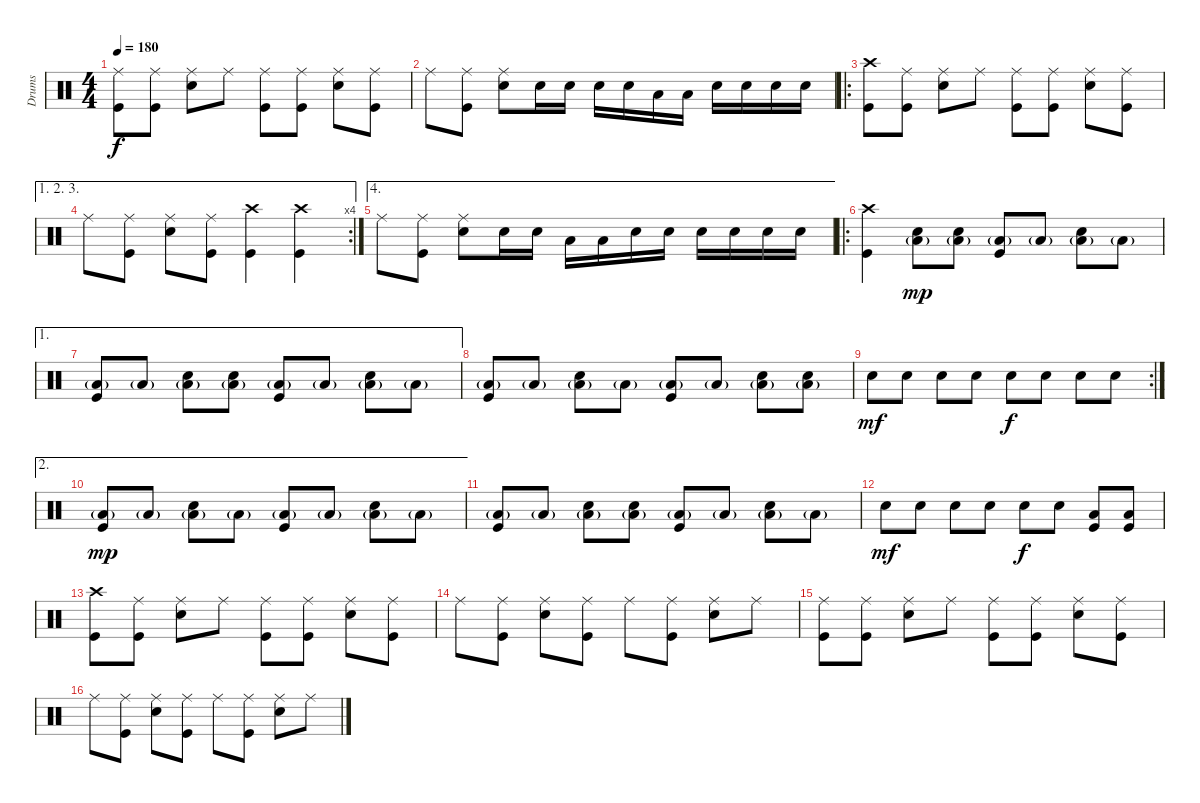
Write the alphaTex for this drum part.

\track ("Drums" "Drums") {instrument percussion}
\staff {score}
\articulation defaults
\ts (4 4)
\tempo 180
\clef neutral
\ks c
("Ride (middle)" "Kick (hit)").8{dy f} ("Ride (middle)" "Kick (hit)").8 ("Ride (middle)" "Electric Snare (hit)").8 "Ride (middle)".8 ("Ride (middle)" "Kick (hit)").8 ("Ride (middle)" "Kick (hit)").8 ("Ride (middle)" "Electric Snare (hit)").8 ("Ride (middle)" "Kick (hit)").8 |
"Ride (middle)".8 ("Ride (middle)" "Kick (hit)").8 ("Ride (middle)" "Electric Snare (hit)").8 "Electric Snare (hit)".16 "Electric Snare (hit)".16 "Electric Snare (hit)".16 "Electric Snare (hit)".16 "Low Tom (hit)".16 "Low Tom (hit)".16 "Electric Snare (hit)".16 "Electric Snare (hit)".16 "Electric Snare (hit)".16 "Electric Snare (hit)".16 |
\ro
("Crash high (hit)" "Kick (hit)").8 ("Ride (middle)" "Kick (hit)").8 ("Ride (middle)" "Electric Snare (hit)").8 "Ride (middle)".8 ("Ride (middle)" "Kick (hit)").8 ("Ride (middle)" "Kick (hit)").8 ("Ride (middle)" "Electric Snare (hit)").8 ("Ride (middle)" "Kick (hit)").8 |
\ae (1 2 3)
\rc 4 "Ride (middle)".8
("Ride (middle)" "Kick (hit)").8 ("Ride (middle)" "Electric Snare (hit)").8 ("Ride (middle)" "Kick (hit)").8 ("Crash high (hit)" "Kick (hit)").4 ("Crash high (hit)" "Kick (hit)").4 |
\ae 4 "Ride (middle)".8
("Ride (middle)" "Kick (hit)").8 ("Ride (middle)" "Electric Snare (hit)").8 "Electric Snare (hit)".16 "Electric Snare (hit)".16 "Low Tom (hit)".16 "Low Tom (hit)".16 "Electric Snare (hit)".16 "Electric Snare (hit)".16 "Electric Snare (hit)".16 "Electric Snare (hit)".16 "Electric Snare (hit)".16 "Electric Snare (hit)".16 |
\ro
("Crash high (hit)" "Kick (hit)").4 ("Low Tom (hit)"{g} "Electric Snare (hit)").8{dy mp} ("Low Tom (hit)"{g} "Electric Snare (hit)").8 ("Low Tom (hit)"{g} "Kick (hit)").8 "Low Tom (hit)"{g}.8 ("Low Tom (hit)"{g} "Electric Snare (hit)").8 "Low Tom (hit)"{g}.8 |
\ae 1
("Low Tom (hit)"{g} "Kick (hit)").8 "Low Tom (hit)"{g}.8 ("Low Tom (hit)"{g} "Electric Snare (hit)").8 ("Low Tom (hit)"{g} "Electric Snare (hit)").8 ("Low Tom (hit)"{g} "Kick (hit)").8 "Low Tom (hit)"{g}.8 ("Low Tom (hit)"{g} "Electric Snare (hit)").8 "Low Tom (hit)"{g}.8 |
("Low Tom (hit)"{g} "Kick (hit)").8 "Low Tom (hit)"{g}.8 ("Low Tom (hit)"{g} "Electric Snare (hit)").8 "Low Tom (hit)"{g}.8 ("Low Tom (hit)"{g} "Kick (hit)").8 "Low Tom (hit)"{g}.8 ("Low Tom (hit)"{g} "Electric Snare (hit)").8 ("Low Tom (hit)"{g} "Electric Snare (hit)").8 |
\rc 2 "Electric Snare (hit)".8{dy mf} "Electric Snare (hit)".8 "Electric Snare (hit)".8 "Electric Snare (hit)".8 "Electric Snare (hit)".8{dy f} "Electric Snare (hit)".8 "Electric Snare (hit)".8 "Electric Snare (hit)".8
|
\ae 2
("Low Tom (hit)"{g} "Kick (hit)").8{dy mp} "Low Tom (hit)"{g}.8 ("Low Tom (hit)"{g} "Electric Snare (hit)").8 "Low Tom (hit)"{g}.8 ("Low Tom (hit)"{g} "Kick (hit)").8 "Low Tom (hit)"{g}.8 ("Low Tom (hit)"{g} "Electric Snare (hit)").8 "Low Tom (hit)"{g}.8 |
("Low Tom (hit)"{g} "Kick (hit)").8 "Low Tom (hit)"{g}.8 ("Low Tom (hit)"{g} "Electric Snare (hit)").8 ("Low Tom (hit)"{g} "Electric Snare (hit)").8 ("Low Tom (hit)"{g} "Kick (hit)").8 "Low Tom (hit)"{g}.8 ("Low Tom (hit)"{g} "Electric Snare (hit)").8 "Low Tom (hit)"{g}.8 |
"Electric Snare (hit)".8{dy mf} "Electric Snare (hit)".8 "Electric Snare (hit)".8 "Electric Snare (hit)".8 "Electric Snare (hit)".8{dy f} "Electric Snare (hit)".8 ("Low Tom (hit)" "Kick (hit)").8 ("Low Tom (hit)" "Kick (hit)").8 |
("Crash high (hit)" "Kick (hit)").8 ("Ride (middle)" "Kick (hit)").8 ("Ride (middle)" "Electric Snare (hit)").8 "Ride (middle)".8 ("Ride (middle)" "Kick (hit)").8 ("Ride (middle)" "Kick (hit)").8 ("Ride (middle)" "Electric Snare (hit)").8 ("Ride (middle)" "Kick (hit)").8 |
"Ride (middle)".8 ("Ride (middle)" "Kick (hit)").8 ("Ride (middle)" "Electric Snare (hit)").8 ("Ride (middle)" "Kick (hit)").8 "Ride (middle)".8 ("Ride (middle)" "Kick (hit)").8 ("Ride (middle)" "Electric Snare (hit)").8 "Ride (middle)".8 |
("Ride (middle)" "Kick (hit)").8 ("Ride (middle)" "Kick (hit)").8 ("Ride (middle)" "Electric Snare (hit)").8 "Ride (middle)".8 ("Ride (middle)" "Kick (hit)").8 ("Ride (middle)" "Kick (hit)").8 ("Ride (middle)" "Electric Snare (hit)").8 ("Ride (middle)" "Kick (hit)").8 |
"Ride (middle)".8 ("Ride (middle)" "Kick (hit)").8 ("Ride (middle)" "Electric Snare (hit)").8 ("Ride (middle)" "Kick (hit)").8 "Ride (middle)".8 ("Ride (middle)" "Kick (hit)").8 ("Ride (middle)" "Electric Snare (hit)").8 "Ride (middle)".8
